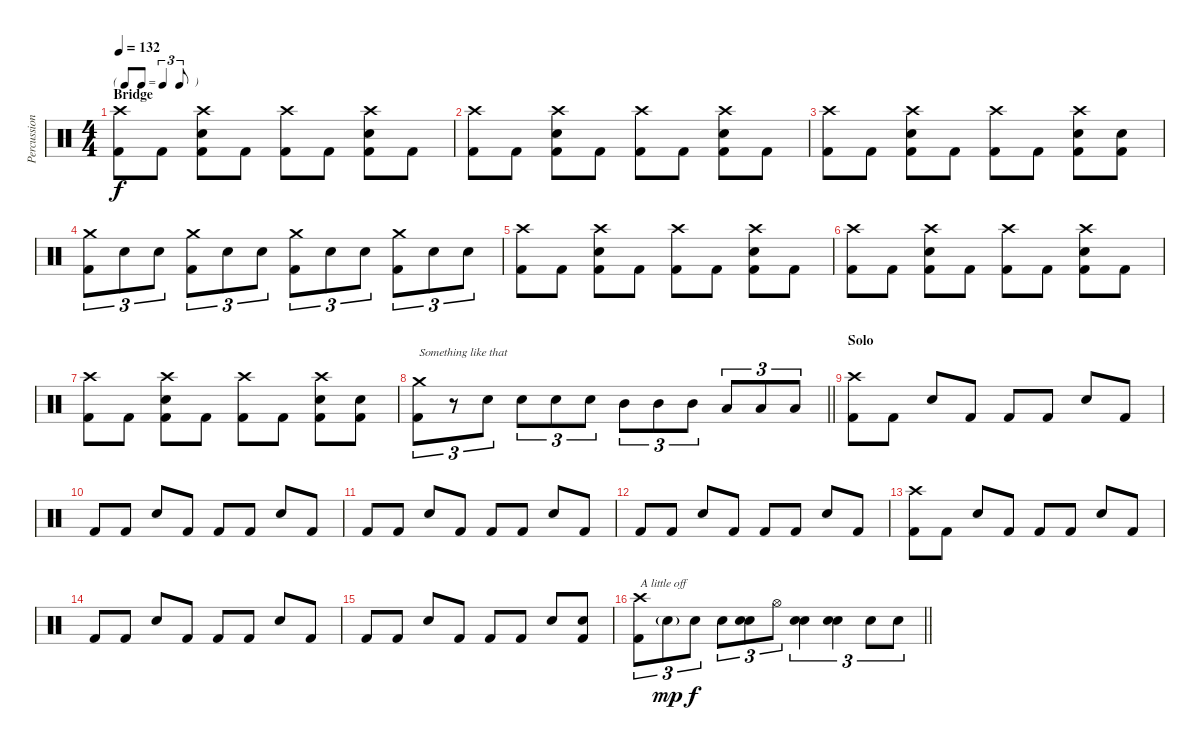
\track ("Percussion" "Percussion") {instrument percussion}
\staff {score}
\articulation defaults
\ts (4 4)
\tf triplet8th
\section ("" "Bridge")
\tempo 132
\clef neutral
\ks c
("Crash high (hit)" "Kick (hit) 2").8{dy f} "Kick (hit) 2".8 ("Crash high (hit)" "Electric Snare (hit)" "Kick (hit) 2").8 "Kick (hit) 2".8 ("Crash high (hit)" "Kick (hit) 2").8 "Kick (hit) 2".8 ("Crash high (hit)" "Electric Snare (hit)" "Kick (hit) 2").8 "Kick (hit) 2".8 |
("Crash high (hit)" "Kick (hit) 2").8 "Kick (hit) 2".8 ("Crash high (hit)" "Electric Snare (hit)" "Kick (hit) 2").8 "Kick (hit) 2".8 ("Crash high (hit)" "Kick (hit) 2").8 "Kick (hit) 2".8 ("Crash high (hit)" "Electric Snare (hit)" "Kick (hit) 2").8 "Kick (hit) 2".8 |
("Crash high (hit)" "Kick (hit) 2").8 "Kick (hit) 2".8 ("Crash high (hit)" "Electric Snare (hit)" "Kick (hit) 2").8 "Kick (hit) 2".8 ("Crash high (hit)" "Kick (hit) 2").8 "Kick (hit) 2".8 ("Crash high (hit)" "Electric Snare (hit)" "Kick (hit) 2").8 ("Electric Snare (hit)" "Kick (hit) 2").8 |
("Crash medium (hit)" "Kick (hit) 2").8{tu (3 2)} "Electric Snare (hit)".8{tu (3 2)} "Electric Snare (hit)".8{tu (3 2)} ("Crash medium (hit)" "Kick (hit) 2").8{tu (3 2)} "Electric Snare (hit)".8{tu (3 2)} "Electric Snare (hit)".8{tu (3 2)} ("Crash medium (hit)" "Kick (hit) 2").8{tu (3 2)} "Electric Snare (hit)".8{tu (3 2)} "Electric Snare (hit)".8{tu (3 2)} ("Crash medium (hit)" "Kick (hit) 2").8{tu (3 2)} "Electric Snare (hit)".8{tu (3 2)} "Electric Snare (hit)".8{tu (3 2)} |
("Crash high (hit)" "Kick (hit) 2").8 "Kick (hit) 2".8 ("Crash high (hit)" "Electric Snare (hit)" "Kick (hit) 2").8 "Kick (hit) 2".8 ("Crash high (hit)" "Kick (hit) 2").8 "Kick (hit) 2".8 ("Crash high (hit)" "Electric Snare (hit)" "Kick (hit) 2").8 "Kick (hit) 2".8 |
("Crash high (hit)" "Kick (hit) 2").8 "Kick (hit) 2".8 ("Crash high (hit)" "Electric Snare (hit)" "Kick (hit) 2").8 "Kick (hit) 2".8 ("Crash high (hit)" "Kick (hit) 2").8 "Kick (hit) 2".8 ("Crash high (hit)" "Electric Snare (hit)" "Kick (hit) 2").8 "Kick (hit) 2".8 |
("Crash high (hit)" "Kick (hit) 2").8 "Kick (hit) 2".8 ("Crash high (hit)" "Electric Snare (hit)" "Kick (hit) 2").8 "Kick (hit) 2".8 ("Crash high (hit)" "Kick (hit) 2").8 "Kick (hit) 2".8 ("Crash high (hit)" "Electric Snare (hit)" "Kick (hit) 2").8 ("Electric Snare (hit)" "Kick (hit) 2").8 |
\barLineRight lightlight
("Crash medium (hit)" "Kick (hit) 2").8{tu (3 2) txt "Something like that"} r.8{tu (3 2)} "Electric Snare (hit)".8{tu (3 2)} "Electric Snare (hit)".8{tu (3 2)} "Electric Snare (hit)".8{tu (3 2)} "Electric Snare (hit)".8{tu (3 2)} "Mid Tom (hit)".8{tu (3 2)} "Mid Tom (hit)".8{tu (3 2)} "Mid Tom (hit)".8{tu (3 2)} "Low Tom (hit)".8{tu (3 2)} "Low Tom (hit)".8{tu (3 2)} "Low Tom (hit)".8{tu (3 2)} |
\section ("" "Solo")
("Crash high (hit)" "Kick (hit) 2").8 "Kick (hit) 2".8 "Electric Snare (hit)".8 "Kick (hit) 2".8 "Kick (hit) 2".8 "Kick (hit) 2".8 "Electric Snare (hit)".8 "Kick (hit) 2".8 |
"Kick (hit) 2".8 "Kick (hit) 2".8 "Electric Snare (hit)".8 "Kick (hit) 2".8 "Kick (hit) 2".8 "Kick (hit) 2".8 "Electric Snare (hit)".8 "Kick (hit) 2".8 |
"Kick (hit) 2".8 "Kick (hit) 2".8 "Electric Snare (hit)".8 "Kick (hit) 2".8 "Kick (hit) 2".8 "Kick (hit) 2".8 "Electric Snare (hit)".8 "Kick (hit) 2".8 |
"Kick (hit) 2".8 "Kick (hit) 2".8 "Electric Snare (hit)".8 "Kick (hit) 2".8 "Kick (hit) 2".8 "Kick (hit) 2".8 "Electric Snare (hit)".8 "Kick (hit) 2".8 |
("Crash high (hit)" "Kick (hit) 2").8 "Kick (hit) 2".8 "Electric Snare (hit)".8 "Kick (hit) 2".8 "Kick (hit) 2".8 "Kick (hit) 2".8 "Electric Snare (hit)".8 "Kick (hit) 2".8 |
"Kick (hit) 2".8 "Kick (hit) 2".8 "Electric Snare (hit)".8 "Kick (hit) 2".8 "Kick (hit) 2".8 "Kick (hit) 2".8 "Electric Snare (hit)".8 "Kick (hit) 2".8 |
"Kick (hit) 2".8 "Kick (hit) 2".8 "Electric Snare (hit)".8 "Kick (hit) 2".8 "Kick (hit) 2".8 "Kick (hit) 2".8 "Electric Snare (hit)".8 ("Electric Snare (hit)" "Kick (hit) 2").8 |
\barLineRight lightlight
("Crash high (hit)" "Kick (hit) 2").8{tu (3 2) txt "A little off"} "Electric Snare (hit)"{g}.8{tu (3 2) dy mp} "Electric Snare (hit)".8{tu (3 2) dy f} "Electric Snare (hit)".8{tu (3 2)} ("Electric Snare (hit)" "Electric Snare (hit)").8{tu (3 2)} "Hi-Hat (open)".8{tu (3 2)} ("Electric Snare (hit)" "Electric Snare (hit)").4{tu (3 2)} ("Electric Snare (hit)" "Electric Snare (hit)").4{tu (3 2)} "Electric Snare (hit)".8{tu (3 2)} "Electric Snare (hit)".8{tu (3 2)}
